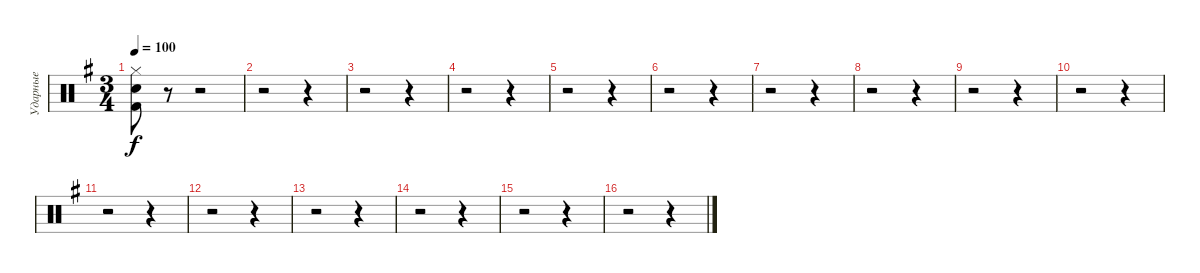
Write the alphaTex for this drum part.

\track ("Ударные" "Ударные") {instrument percussion}
\staff {score}
\articulation defaults
\ts (3 4)
\tempo 100
\clef neutral
\ks eminor
("Snare (hit) 2" "Kick (hit) 2" "Hi-Hat (closed)").8{dy f} r.8 r.2 |
r.2 r.4 |
r.2 r.4 |
r.2 r.4 |
r.2 r.4 |
r.2 r.4 |
r.2 r.4 |
r.2 r.4 |
r.2 r.4 |
r.2 r.4 |
r.2 r.4 |
r.2 r.4 |
r.2 r.4 |
r.2 r.4 |
r.2 r.4 |
r.2 r.4
